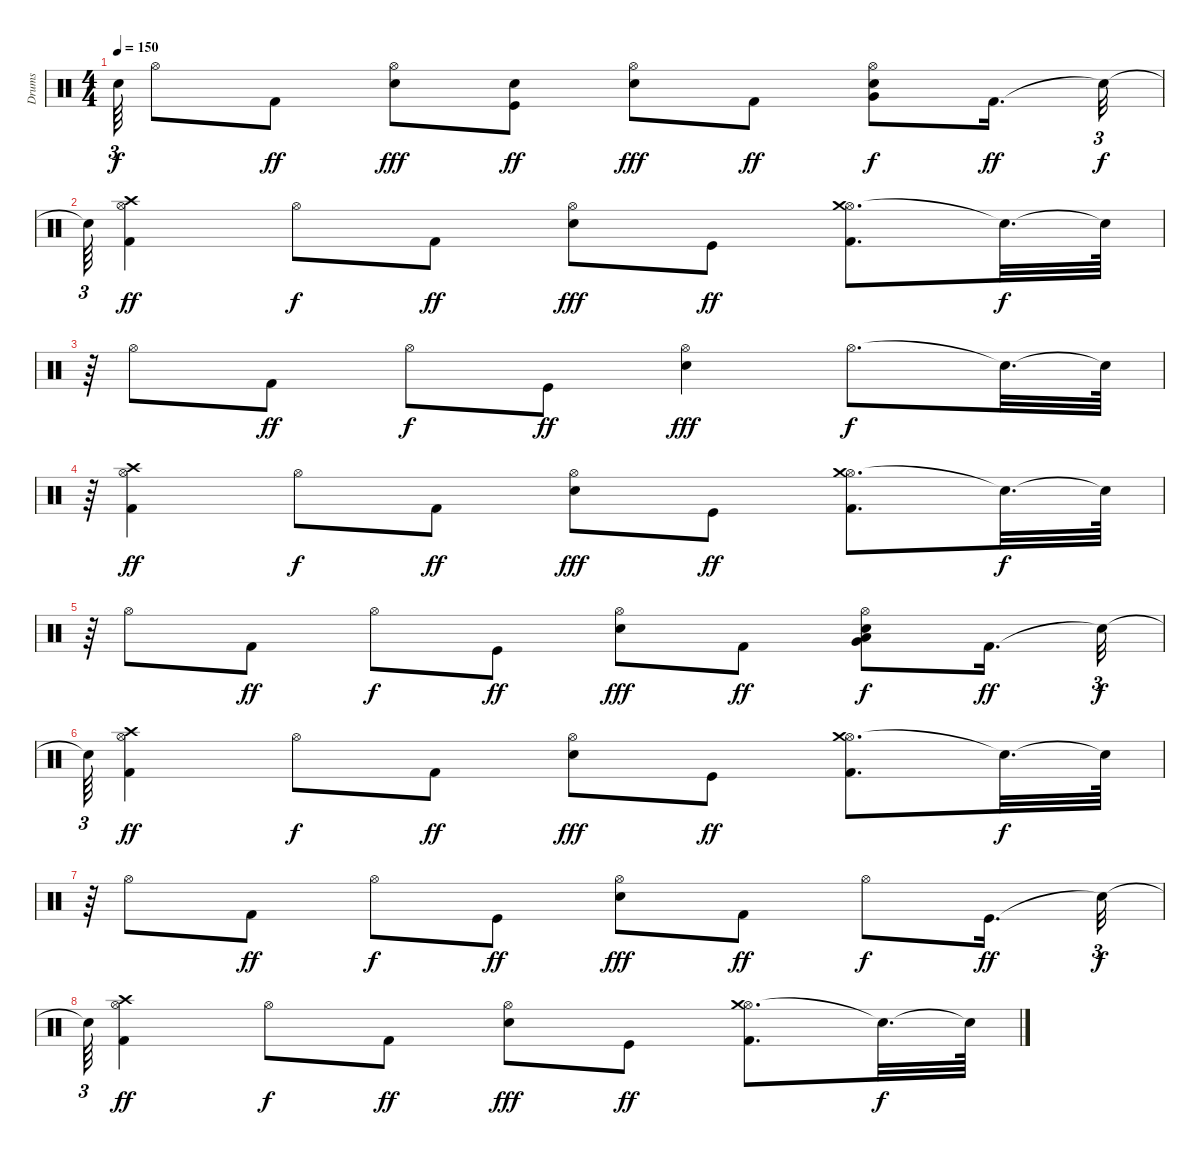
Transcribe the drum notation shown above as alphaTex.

\track ("Drums" "Drums") {instrument percussion}
\staff {score}
\articulation defaults
\ts (4 4)
\tempo 150
\clef neutral
\ks c "Snare (hit)"{t}.64{tu (3 2) dy f} "Hi-Hat (open)".8 "Kick (hit) 2".8{dy ff}
("Hi-Hat (open)" "Electric Snare (hit)").8{dy fff} ("Kick (hit)" "Electric Snare (hit)").8{dy ff} ("Hi-Hat (open)" "Electric Snare (hit)").8{dy fff} "Kick (hit) 2".8{dy ff} ("Very Low Tom (hit)" "Electric Snare (hit)" "Hi-Hat (open)").8{dy f} "Kick (hit) 2".16{d dy ff} "Snare (hit)"{t}.32{tu (3 2) dy f} |
"Snare (hit)"{t}.64{tu (3 2)} ("Crash high (hit)" "Hi-Hat (open)" "Kick (hit) 2").4{dy ff} "Hi-Hat (open)".8{dy f} "Kick (hit) 2".8{dy ff} ("Hi-Hat (open)" "Electric Snare (hit)").8{dy fff} "Kick (hit)".8{dy ff} ("Hi-Hat (open)" "Crash medium (hit)" "Kick (hit) 2").8{d} "Snare (hit)"{t}.32{d dy f} "Snare (hit)"{t}.64 |
r.64{tu (3 2)} "Hi-Hat (open)".8 "Kick (hit) 2".8{dy ff} "Hi-Hat (open)".8{dy f} "Kick (hit)".8{dy ff} ("Hi-Hat (open)" "Electric Snare (hit)").4{dy fff} "Hi-Hat (open)".8{d dy f} "Snare (hit)"{t}.32{d} "Snare (hit)"{t}.64 |
r.64{tu (3 2)} ("Hi-Hat (open)" "Crash high (hit)" "Kick (hit) 2").4{dy ff} "Hi-Hat (open)".8{dy f} "Kick (hit) 2".8{dy ff} ("Hi-Hat (open)" "Electric Snare (hit)").8{dy fff} "Kick (hit)".8{dy ff} ("Hi-Hat (open)" "Crash medium (hit)" "Kick (hit) 2").8{d} "Snare (hit)"{t}.32{d dy f} "Snare (hit)"{t}.64 |
r.64{tu (3 2)} "Hi-Hat (open)".8 "Kick (hit) 2".8{dy ff} "Hi-Hat (open)".8{dy f} "Kick (hit)".8{dy ff} ("Hi-Hat (open)" "Electric Snare (hit)").8{dy fff} "Kick (hit) 2".8{dy ff} ("Hi-Hat (open)" "Electric Snare (hit)" "Low Tom (hit)" "Very Low Tom (hit)").8{dy f} "Kick (hit) 2".16{d dy ff} "Snare (hit)"{t}.32{tu (3 2) dy f} |
"Snare (hit)"{t}.64{tu (3 2)} ("Hi-Hat (open)" "Crash high (hit)" "Kick (hit) 2").4{dy ff} "Hi-Hat (open)".8{dy f} "Kick (hit) 2".8{dy ff} ("Hi-Hat (open)" "Electric Snare (hit)").8{dy fff} "Kick (hit)".8{dy ff} ("Hi-Hat (open)" "Crash medium (hit)" "Kick (hit) 2").8{d} "Snare (hit)"{t}.32{d dy f} "Snare (hit)"{t}.64 |
r.64{tu (3 2)} "Hi-Hat (open)".8 "Kick (hit) 2".8{dy ff} "Hi-Hat (open)".8{dy f} "Kick (hit)".8{dy ff} ("Hi-Hat (open)" "Electric Snare (hit)").8{dy fff} "Kick (hit) 2".8{dy ff} "Hi-Hat (open)".8{dy f} "Kick (hit)".16{d dy ff} "Snare (hit)"{t}.32{tu (3 2) dy f} |
"Snare (hit)"{t}.64{tu (3 2)} ("Hi-Hat (open)" "Crash high (hit)" "Kick (hit) 2").4{dy ff} "Hi-Hat (open)".8{dy f} "Kick (hit) 2".8{dy ff} ("Hi-Hat (open)" "Electric Snare (hit)").8{dy fff} "Kick (hit)".8{dy ff} ("Hi-Hat (open)" "Crash medium (hit)" "Kick (hit) 2").8{d} "Snare (hit)"{t}.32{d dy f} "Snare (hit)"{t}.64
